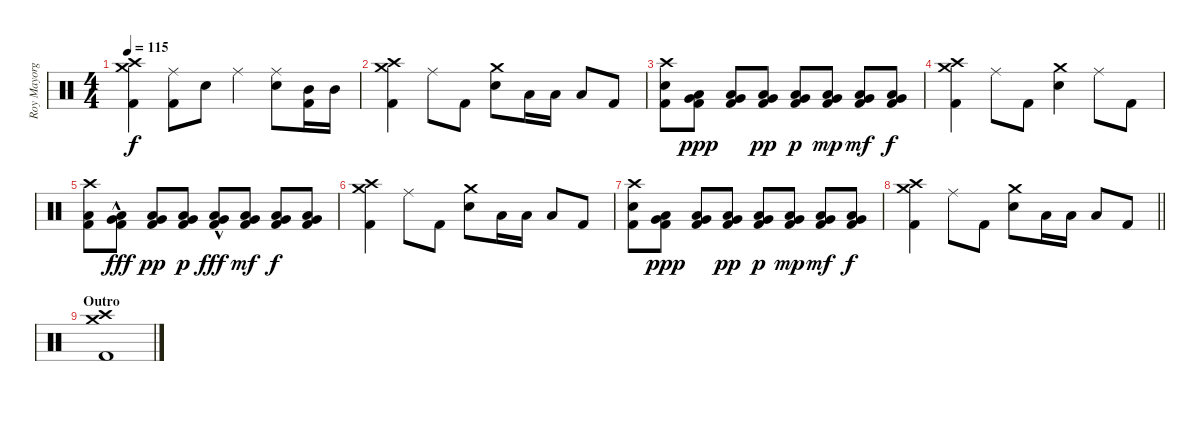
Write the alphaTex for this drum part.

\track ("Roy Mayorga" "Roy Mayorg") {instrument percussion}
\staff {score}
\articulation defaults
\ts (4 4)
\tempo 115
\clef neutral
\ks c
("Crash high (hit)" "Crash medium (hit)" "Kick (hit) 2").4{dy f} ("Ride (middle)" "Kick (hit) 2").8 "Electric Snare (hit)".8 "Ride (middle)".4 ("Ride (middle)" "Electric Snare (hit)").8 ("Mid Tom (hit)" "Kick (hit) 2").16 "Mid Tom (hit)".16 |
("Crash high (hit)" "Crash medium (hit)" "Kick (hit) 2").4 "Ride (middle)".8 "Kick (hit) 2".8 ("Crash medium (hit)" "Electric Snare (hit)").8 "Low Tom (hit)".16 "Low Tom (hit)".16 "Low Tom (hit)".8 "Kick (hit) 2".8 |
("Crash high (hit)" "Electric Snare (hit)" "Kick (hit) 2").8 ("Very Low Tom (hit)" "Low Floor Tom (hit)" "Kick (hit) 2").8{dy ppp} ("Very Low Tom (hit)" "Low Floor Tom (hit)" "Kick (hit) 2").8 ("Very Low Tom (hit)" "Low Floor Tom (hit)" "Kick (hit) 2").8{dy pp} ("Very Low Tom (hit)" "Low Floor Tom (hit)" "Kick (hit) 2").8{dy p} ("Very Low Tom (hit)" "Low Floor Tom (hit)" "Kick (hit) 2").8{dy mp} ("Very Low Tom (hit)" "Low Floor Tom (hit)" "Kick (hit) 2").8{dy mf} ("Very Low Tom (hit)" "Low Floor Tom (hit)" "Kick (hit) 2").8{dy f} |
("Crash high (hit)" "Crash medium (hit)" "Kick (hit) 2").4 "Ride (middle)".8 "Kick (hit) 2".8 ("Crash medium (hit)" "Electric Snare (hit)").4 "Ride (middle)".8 "Kick (hit) 2".8 |
("Crash high (hit)" "Low Tom (hit)" "Kick (hit) 2").8 ("Very Low Tom (hit)"{hac} "Low Floor Tom (hit)"{hac} "Kick (hit) 2").8{dy fff} ("Very Low Tom (hit)" "Low Floor Tom (hit)" "Kick (hit) 2").8{dy pp} ("Very Low Tom (hit)" "Low Floor Tom (hit)" "Kick (hit) 2").8{dy p} ("Very Low Tom (hit)"{hac} "Low Floor Tom (hit)"{hac} "Kick (hit) 2").8{dy fff} ("Very Low Tom (hit)" "Low Floor Tom (hit)" "Kick (hit) 2").8{dy mf} ("Very Low Tom (hit)" "Low Floor Tom (hit)" "Kick (hit) 2").8{dy f} ("Very Low Tom (hit)" "Low Floor Tom (hit)" "Kick (hit) 2").8 |
("Crash high (hit)" "Crash medium (hit)" "Kick (hit) 2").4 "Ride (middle)".8 "Kick (hit) 2".8 ("Crash medium (hit)" "Electric Snare (hit)").8 "Low Tom (hit)".16 "Low Tom (hit)".16 "Low Tom (hit)".8 "Kick (hit) 2".8 |
("Crash high (hit)" "Electric Snare (hit)" "Kick (hit) 2").8 ("Very Low Tom (hit)" "Low Floor Tom (hit)" "Kick (hit) 2").8{dy ppp} ("Very Low Tom (hit)" "Low Floor Tom (hit)" "Kick (hit) 2").8 ("Very Low Tom (hit)" "Low Floor Tom (hit)" "Kick (hit) 2").8{dy pp} ("Very Low Tom (hit)" "Low Floor Tom (hit)" "Kick (hit) 2").8{dy p} ("Very Low Tom (hit)" "Low Floor Tom (hit)" "Kick (hit) 2").8{dy mp} ("Very Low Tom (hit)" "Low Floor Tom (hit)" "Kick (hit) 2").8{dy mf} ("Very Low Tom (hit)" "Low Floor Tom (hit)" "Kick (hit) 2").8{dy f} |
\barLineRight lightlight
("Crash high (hit)" "Crash medium (hit)" "Kick (hit) 2").4 "Ride (middle)".8 "Kick (hit) 2".8 ("Crash medium (hit)" "Electric Snare (hit)").8 "Low Tom (hit)".16 "Low Tom (hit)".16 "Low Tom (hit)".8 "Kick (hit) 2".8 |
\section ("" "Outro")
("Crash high (hit)" "Crash medium (hit)" "Kick (hit) 2").1
